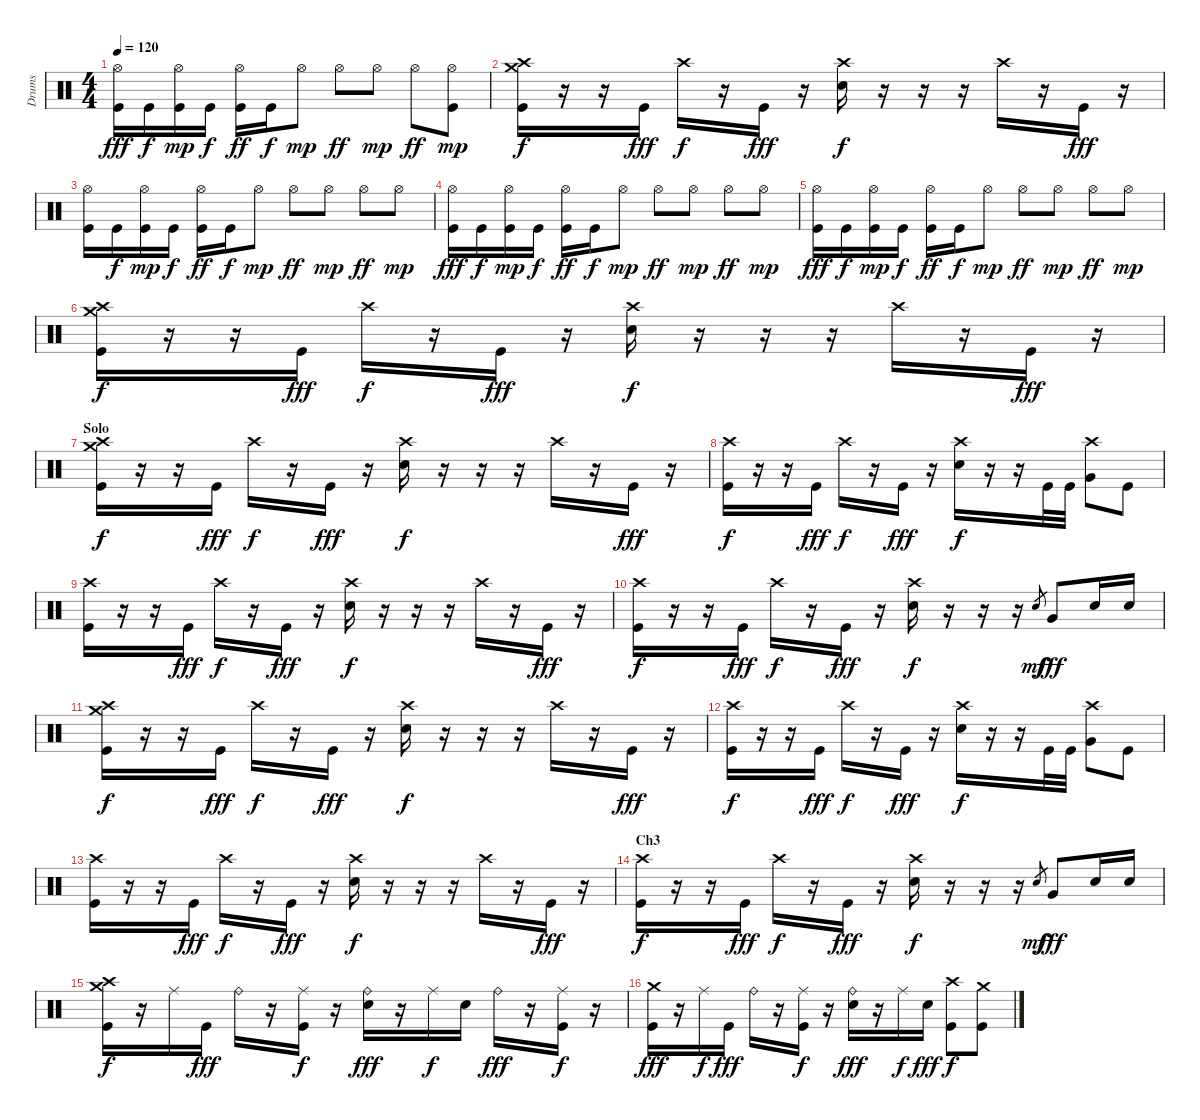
\track ("Drums" "Drums") {instrument percussion}
\staff {score}
\articulation defaults
\ts (4 4)
\tempo 120
\clef neutral
\ks c
("Hi-Hat (open)" "Kick (hit)").16{dy fff} "Kick (hit)".16{dy f} ("Hi-Hat (open)" "Kick (hit)").16{dy mp} "Kick (hit)".16{dy f} ("Hi-Hat (open)" "Kick (hit)").16{dy ff} "Kick (hit)".16{dy f} "Hi-Hat (open)".8{dy mp} "Hi-Hat (open)".8{dy ff} "Hi-Hat (open)".8{dy mp} "Hi-Hat (open)".8{dy ff} ("Hi-Hat (open)" "Kick (hit)").8{dy mp} |
("Crash high (hit)" "Crash medium (hit)" "Kick (hit)").16{dy f} r.16 r.16 "Kick (hit)".16{dy fff} "Crash high (hit)".16{dy f} r.16 "Kick (hit)".16{dy fff} r.16 ("Crash high (hit)" "Snare (hit) 2").16{dy f} r.16 r.16 r.16 "Crash high (hit)".16 r.16 "Kick (hit)".16{dy fff} r.16 |
("Hi-Hat (open)" "Kick (hit)").16 "Kick (hit)".16{dy f} ("Hi-Hat (open)" "Kick (hit)").16{dy mp} "Kick (hit)".16{dy f} ("Hi-Hat (open)" "Kick (hit)").16{dy ff} "Kick (hit)".16{dy f} "Hi-Hat (open)".8{dy mp} "Hi-Hat (open)".8{dy ff} "Hi-Hat (open)".8{dy mp} "Hi-Hat (open)".8{dy ff} "Hi-Hat (open)".8{dy mp} |
("Hi-Hat (open)" "Kick (hit)").16{dy fff} "Kick (hit)".16{dy f} ("Hi-Hat (open)" "Kick (hit)").16{dy mp} "Kick (hit)".16{dy f} ("Hi-Hat (open)" "Kick (hit)").16{dy ff} "Kick (hit)".16{dy f} "Hi-Hat (open)".8{dy mp} "Hi-Hat (open)".8{dy ff} "Hi-Hat (open)".8{dy mp} "Hi-Hat (open)".8{dy ff} "Hi-Hat (open)".8{dy mp} |
("Hi-Hat (open)" "Kick (hit)").16{dy fff} "Kick (hit)".16{dy f} ("Hi-Hat (open)" "Kick (hit)").16{dy mp} "Kick (hit)".16{dy f} ("Hi-Hat (open)" "Kick (hit)").16{dy ff} "Kick (hit)".16{dy f} "Hi-Hat (open)".8{dy mp} "Hi-Hat (open)".8{dy ff} "Hi-Hat (open)".8{dy mp} "Hi-Hat (open)".8{dy ff} "Hi-Hat (open)".8{dy mp} |
("Crash high (hit)" "Crash medium (hit)" "Kick (hit)").16{dy f} r.16 r.16 "Kick (hit)".16{dy fff} "Crash high (hit)".16{dy f} r.16 "Kick (hit)".16{dy fff} r.16 ("Crash high (hit)" "Snare (hit) 2").16{dy f} r.16 r.16 r.16 "Crash high (hit)".16 r.16 "Kick (hit)".16{dy fff} r.16 |
\section ("" "Solo")
("Crash high (hit)" "Crash medium (hit)" "Kick (hit)").16{dy f} r.16 r.16 "Kick (hit)".16{dy fff} "Crash high (hit)".16{dy f} r.16 "Kick (hit)".16{dy fff} r.16 ("Crash high (hit)" "Snare (hit) 2").16{dy f} r.16 r.16 r.16 "Crash high (hit)".16 r.16 "Kick (hit)".16{dy fff} r.16 |
("Crash high (hit)" "Kick (hit)").16{dy f} r.16 r.16 "Kick (hit)".16{dy fff} "Crash high (hit)".16{dy f} r.16 "Kick (hit)".16{dy fff} r.16 ("Crash high (hit)" "Snare (hit) 2").16{dy f} r.16 r.16 "Kick (hit)".32 "Kick (hit)".32 ("Crash high (hit)" "Very Low Tom (hit)").8 "Kick (hit)".8 |
("Crash high (hit)" "Kick (hit)").16 r.16 r.16 "Kick (hit)".16{dy fff} "Crash high (hit)".16{dy f} r.16 "Kick (hit)".16{dy fff} r.16 ("Crash high (hit)" "Snare (hit) 2").16{dy f} r.16 r.16 r.16 "Crash high (hit)".16 r.16 "Kick (hit)".16{dy fff} r.16 |
("Crash high (hit)" "Kick (hit)").16{dy f} r.16 r.16 "Kick (hit)".16{dy fff} "Crash high (hit)".16{dy f} r.16 "Kick (hit)".16{dy fff} r.16 ("Crash high (hit)" "Snare (hit) 2").16{dy f} r.16 r.16 r.16 "Snare (hit)".8{gr dy mf} "Very Low Tom (hit)".8{dy fff} "Snare (hit) 2".16 "Snare (hit) 2".16 |
("Crash high (hit)" "Crash medium (hit)" "Kick (hit)").16{dy f} r.16 r.16 "Kick (hit)".16{dy fff} "Crash high (hit)".16{dy f} r.16 "Kick (hit)".16{dy fff} r.16 ("Crash high (hit)" "Snare (hit) 2").16{dy f} r.16 r.16 r.16 "Crash high (hit)".16 r.16 "Kick (hit)".16{dy fff} r.16 |
("Crash high (hit)" "Kick (hit)").16{dy f} r.16 r.16 "Kick (hit)".16{dy fff} "Crash high (hit)".16{dy f} r.16 "Kick (hit)".16{dy fff} r.16 ("Crash high (hit)" "Snare (hit) 2").16{dy f} r.16 r.16 "Kick (hit)".32 "Kick (hit)".32 ("Crash high (hit)" "Very Low Tom (hit)").8 "Kick (hit)".8 |
("Crash high (hit)" "Kick (hit)").16 r.16 r.16 "Kick (hit)".16{dy fff} "Crash high (hit)".16{dy f} r.16 "Kick (hit)".16{dy fff} r.16 ("Crash high (hit)" "Snare (hit) 2").16{dy f} r.16 r.16 r.16 "Crash high (hit)".16 r.16 "Kick (hit)".16{dy fff} r.16 |
\section ("" "Ch3")
("Crash high (hit)" "Kick (hit)").16{dy f} r.16 r.16 "Kick (hit)".16{dy fff} "Crash high (hit)".16{dy f} r.16 "Kick (hit)".16{dy fff} r.16 ("Crash high (hit)" "Snare (hit) 2").16{dy f} r.16 r.16 r.16 "Snare (hit)".8{gr dy mf} "Very Low Tom (hit)".8{dy fff} "Snare (hit) 2".16 "Snare (hit) 2".16 |
("Crash high (hit)" "Crash medium (hit)" "Kick (hit)").16{dy f} r.16 "Ride (middle)".16 "Kick (hit)".16{dy fff} "Ride (bell)".16 r.16 ("Ride (middle)" "Kick (hit)").16{dy f} r.16 ("Ride (bell)" "Snare (hit) 2").16{dy fff} r.16 "Ride (middle)".16{dy f} "Snare (hit) 2".16 "Ride (bell)".16{dy fff} r.16 ("Ride (middle)" "Kick (hit)").16{dy f} r.16 |
("Crash medium (hit)" "Kick (hit)").16{dy fff} r.16 "Ride (middle)".16{dy f} "Kick (hit)".16{dy fff} "Ride (bell)".16 r.16 ("Ride (middle)" "Kick (hit)").16{dy f} r.16 ("Ride (bell)" "Snare (hit) 2").16{dy fff} r.16 "Ride (middle)".16{dy f} "Snare (hit) 2".16{dy fff} ("Crash high (hit)" "Kick (hit)").8{dy f} ("Crash medium (hit)" "Kick (hit)").8
